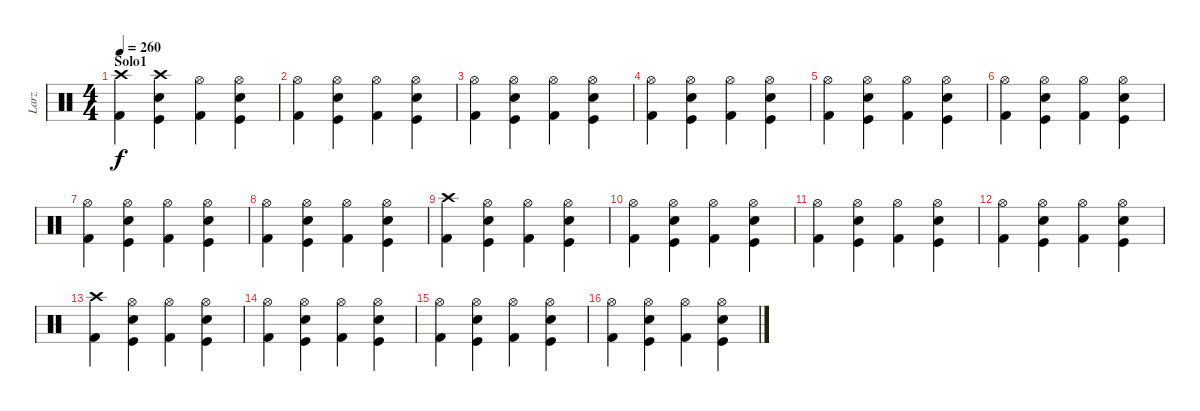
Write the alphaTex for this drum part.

\track ("Larz" "Larz") {instrument percussion}
\staff {score}
\articulation defaults
\ts (4 4)
\section ("" "Solo1")
\tempo 260
\clef neutral
\ks c
("Crash high (hit)" "Kick (hit) 2").4{dy f} ("Crash high (hit)" "Kick (hit)" "Electric Snare (hit)").4 ("Hi-Hat (open)" "Kick (hit) 2").4 ("Hi-Hat (open)" "Kick (hit)" "Electric Snare (hit)").4 |
("Hi-Hat (open)" "Kick (hit) 2").4 ("Hi-Hat (open)" "Kick (hit)" "Electric Snare (hit)").4 ("Hi-Hat (open)" "Kick (hit) 2").4 ("Hi-Hat (open)" "Kick (hit)" "Electric Snare (hit)").4 |
("Hi-Hat (open)" "Kick (hit) 2").4 ("Hi-Hat (open)" "Kick (hit)" "Electric Snare (hit)").4 ("Hi-Hat (open)" "Kick (hit) 2").4 ("Hi-Hat (open)" "Kick (hit)" "Electric Snare (hit)").4 |
("Hi-Hat (open)" "Kick (hit) 2").4 ("Hi-Hat (open)" "Kick (hit)" "Electric Snare (hit)").4 ("Hi-Hat (open)" "Kick (hit) 2").4 ("Hi-Hat (open)" "Kick (hit)" "Electric Snare (hit)").4 |
("Hi-Hat (open)" "Kick (hit) 2").4 ("Hi-Hat (open)" "Kick (hit)" "Electric Snare (hit)").4 ("Hi-Hat (open)" "Kick (hit) 2").4 ("Hi-Hat (open)" "Kick (hit)" "Electric Snare (hit)").4 |
("Hi-Hat (open)" "Kick (hit) 2").4 ("Hi-Hat (open)" "Kick (hit)" "Electric Snare (hit)").4 ("Hi-Hat (open)" "Kick (hit) 2").4 ("Hi-Hat (open)" "Kick (hit)" "Electric Snare (hit)").4 |
("Hi-Hat (open)" "Kick (hit) 2").4 ("Hi-Hat (open)" "Kick (hit)" "Electric Snare (hit)").4 ("Hi-Hat (open)" "Kick (hit) 2").4 ("Hi-Hat (open)" "Kick (hit)" "Electric Snare (hit)").4 |
("Hi-Hat (open)" "Kick (hit) 2").4 ("Hi-Hat (open)" "Kick (hit)" "Electric Snare (hit)").4 ("Hi-Hat (open)" "Kick (hit) 2").4 ("Hi-Hat (open)" "Kick (hit)" "Electric Snare (hit)").4 |
("Crash high (hit)" "Kick (hit) 2").4 ("Hi-Hat (open)" "Kick (hit)" "Electric Snare (hit)").4 ("Hi-Hat (open)" "Kick (hit) 2").4 ("Hi-Hat (open)" "Kick (hit)" "Electric Snare (hit)").4 |
("Hi-Hat (open)" "Kick (hit) 2").4 ("Hi-Hat (open)" "Kick (hit)" "Electric Snare (hit)").4 ("Hi-Hat (open)" "Kick (hit) 2").4 ("Hi-Hat (open)" "Kick (hit)" "Electric Snare (hit)").4 |
("Hi-Hat (open)" "Kick (hit) 2").4 ("Hi-Hat (open)" "Kick (hit)" "Electric Snare (hit)").4 ("Hi-Hat (open)" "Kick (hit) 2").4 ("Hi-Hat (open)" "Kick (hit)" "Electric Snare (hit)").4 |
("Hi-Hat (open)" "Kick (hit) 2").4 ("Hi-Hat (open)" "Kick (hit)" "Electric Snare (hit)").4 ("Hi-Hat (open)" "Kick (hit) 2").4 ("Hi-Hat (open)" "Kick (hit)" "Electric Snare (hit)").4 |
("Crash high (hit)" "Kick (hit) 2").4 ("Hi-Hat (open)" "Kick (hit)" "Electric Snare (hit)").4 ("Hi-Hat (open)" "Kick (hit) 2").4 ("Hi-Hat (open)" "Kick (hit)" "Electric Snare (hit)").4 |
("Hi-Hat (open)" "Kick (hit) 2").4 ("Hi-Hat (open)" "Kick (hit)" "Electric Snare (hit)").4 ("Hi-Hat (open)" "Kick (hit) 2").4 ("Hi-Hat (open)" "Kick (hit)" "Electric Snare (hit)").4 |
("Hi-Hat (open)" "Kick (hit) 2").4 ("Hi-Hat (open)" "Kick (hit)" "Electric Snare (hit)").4 ("Hi-Hat (open)" "Kick (hit) 2").4 ("Hi-Hat (open)" "Kick (hit)" "Electric Snare (hit)").4 |
("Hi-Hat (open)" "Kick (hit) 2").4 ("Hi-Hat (open)" "Kick (hit)" "Electric Snare (hit)").4 ("Hi-Hat (open)" "Kick (hit) 2").4 ("Hi-Hat (open)" "Kick (hit)" "Electric Snare (hit)").4
